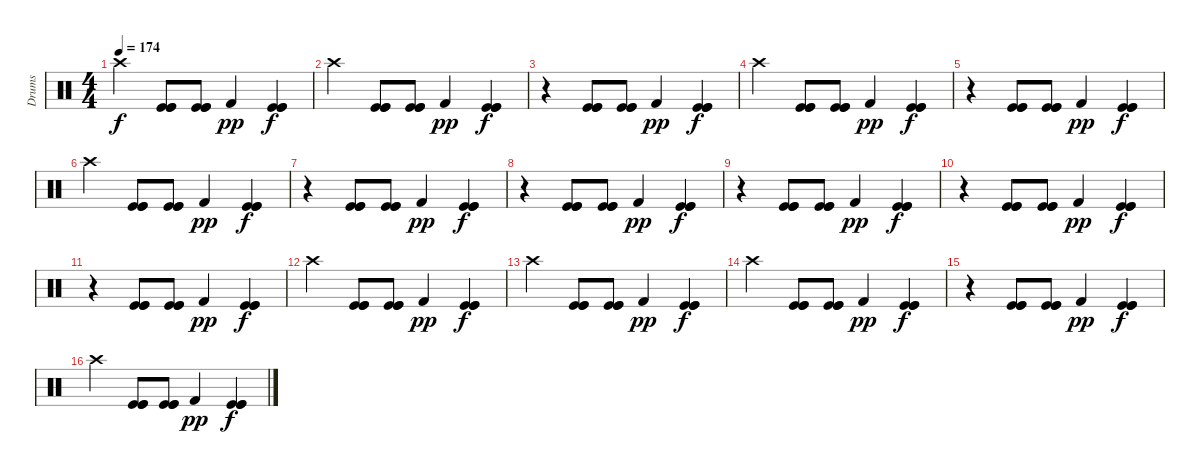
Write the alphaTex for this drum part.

\track ("Drums" "Drums") {instrument percussion}
\staff {score}
\articulation defaults
\ts (4 4)
\tempo 174
\clef neutral
\ks c "Crash high (hit)".4{dy f}
("Kick (hit)" "Kick (hit)" "Kick (hit)").8 ("Kick (hit)" "Kick (hit)" "Kick (hit)").8 "Kick (hit) 2".4{dy pp} ("Kick (hit)" "Kick (hit)" "Kick (hit)").4{dy f} |
"Crash high (hit)".4 ("Kick (hit)" "Kick (hit)" "Kick (hit)").8 ("Kick (hit)" "Kick (hit)" "Kick (hit)").8 "Kick (hit) 2".4{dy pp} ("Kick (hit)" "Kick (hit)" "Kick (hit)").4{dy f} |
r.4 ("Kick (hit)" "Kick (hit)" "Kick (hit)").8 ("Kick (hit)" "Kick (hit)" "Kick (hit)").8 "Kick (hit) 2".4{dy pp} ("Kick (hit)" "Kick (hit)" "Kick (hit)").4{dy f} |
"Crash high (hit)".4 ("Kick (hit)" "Kick (hit)" "Kick (hit)").8 ("Kick (hit)" "Kick (hit)" "Kick (hit)").8 "Kick (hit) 2".4{dy pp} ("Kick (hit)" "Kick (hit)" "Kick (hit)").4{dy f} |
r.4 ("Kick (hit)" "Kick (hit)" "Kick (hit)").8 ("Kick (hit)" "Kick (hit)" "Kick (hit)").8 "Kick (hit) 2".4{dy pp} ("Kick (hit)" "Kick (hit)" "Kick (hit)").4{dy f} |
"Crash high (hit)".4 ("Kick (hit)" "Kick (hit)" "Kick (hit)").8 ("Kick (hit)" "Kick (hit)" "Kick (hit)").8 "Kick (hit) 2".4{dy pp} ("Kick (hit)" "Kick (hit)" "Kick (hit)").4{dy f} |
r.4 ("Kick (hit)" "Kick (hit)" "Kick (hit)").8 ("Kick (hit)" "Kick (hit)" "Kick (hit)").8 "Kick (hit) 2".4{dy pp} ("Kick (hit)" "Kick (hit)" "Kick (hit)").4{dy f} |
r.4 ("Kick (hit)" "Kick (hit)" "Kick (hit)").8 ("Kick (hit)" "Kick (hit)" "Kick (hit)").8 "Kick (hit) 2".4{dy pp} ("Kick (hit)" "Kick (hit)" "Kick (hit)").4{dy f} |
r.4 ("Kick (hit)" "Kick (hit)" "Kick (hit)").8 ("Kick (hit)" "Kick (hit)" "Kick (hit)").8 "Kick (hit) 2".4{dy pp} ("Kick (hit)" "Kick (hit)" "Kick (hit)").4{dy f} |
r.4 ("Kick (hit)" "Kick (hit)" "Kick (hit)").8 ("Kick (hit)" "Kick (hit)" "Kick (hit)").8 "Kick (hit) 2".4{dy pp} ("Kick (hit)" "Kick (hit)" "Kick (hit)").4{dy f} |
r.4 ("Kick (hit)" "Kick (hit)" "Kick (hit)").8 ("Kick (hit)" "Kick (hit)" "Kick (hit)").8 "Kick (hit) 2".4{dy pp} ("Kick (hit)" "Kick (hit)" "Kick (hit)").4{dy f} |
"Crash high (hit)".4 ("Kick (hit)" "Kick (hit)" "Kick (hit)").8 ("Kick (hit)" "Kick (hit)" "Kick (hit)").8 "Kick (hit) 2".4{dy pp} ("Kick (hit)" "Kick (hit)" "Kick (hit)").4{dy f} |
"Crash high (hit)".4 ("Kick (hit)" "Kick (hit)" "Kick (hit)").8 ("Kick (hit)" "Kick (hit)" "Kick (hit)").8 "Kick (hit) 2".4{dy pp} ("Kick (hit)" "Kick (hit)" "Kick (hit)").4{dy f} |
"Crash high (hit)".4 ("Kick (hit)" "Kick (hit)" "Kick (hit)").8 ("Kick (hit)" "Kick (hit)" "Kick (hit)").8 "Kick (hit) 2".4{dy pp} ("Kick (hit)" "Kick (hit)" "Kick (hit)").4{dy f} |
r.4 ("Kick (hit)" "Kick (hit)" "Kick (hit)").8 ("Kick (hit)" "Kick (hit)" "Kick (hit)").8 "Kick (hit) 2".4{dy pp} ("Kick (hit)" "Kick (hit)" "Kick (hit)").4{dy f} |
"Crash high (hit)".4 ("Kick (hit)" "Kick (hit)" "Kick (hit)").8 ("Kick (hit)" "Kick (hit)" "Kick (hit)").8 "Kick (hit) 2".4{dy pp} ("Kick (hit)" "Kick (hit)" "Kick (hit)").4{dy f}
